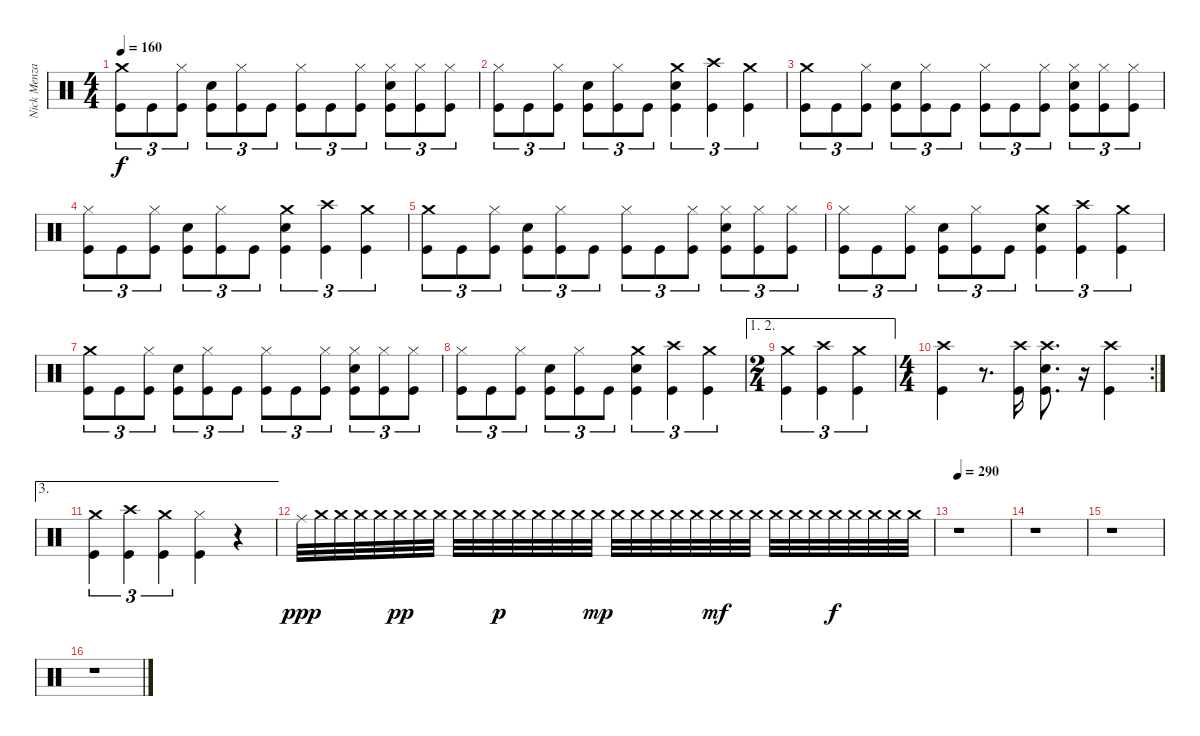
\track ("Nick Menza" "Nick Menza") {instrument percussion}
\staff {score}
\articulation defaults
\ts (4 4)
\tempo 160
\clef neutral
\ks c
("Crash medium (hit)" "Kick (hit)").8{tu (3 2) dy f} "Kick (hit)".8{tu (3 2)} ("Hi-Hat (closed)" "Kick (hit)").8{tu (3 2)} ("Snare (hit) 2" "Kick (hit)").8{tu (3 2)} ("Hi-Hat (closed)" "Kick (hit)").8{tu (3 2)} "Kick (hit)".8{tu (3 2)} ("Hi-Hat (closed)" "Kick (hit)").8{tu (3 2)} "Kick (hit)".8{tu (3 2)} ("Hi-Hat (closed)" "Kick (hit)").8{tu (3 2)} ("Hi-Hat (closed)" "Snare (hit) 2" "Kick (hit)").8{tu (3 2)} ("Hi-Hat (closed)" "Kick (hit)").8{tu (3 2)} ("Hi-Hat (closed)" "Kick (hit)").8{tu (3 2)} |
("Hi-Hat (closed)" "Kick (hit)").8{tu (3 2)} "Kick (hit)".8{tu (3 2)} ("Hi-Hat (closed)" "Kick (hit)").8{tu (3 2)} ("Snare (hit) 2" "Kick (hit)").8{tu (3 2)} ("Hi-Hat (closed)" "Kick (hit)").8{tu (3 2)} "Kick (hit)".8{tu (3 2)} ("Crash medium (hit)" "Snare (hit) 2" "Kick (hit)").4{tu (3 2)} ("Crash high (hit)" "Kick (hit)").4{tu (3 2)} ("Crash medium (hit)" "Kick (hit)").4{tu (3 2)} |
("Crash medium (hit)" "Kick (hit)").8{tu (3 2)} "Kick (hit)".8{tu (3 2)} ("Hi-Hat (closed)" "Kick (hit)").8{tu (3 2)} ("Snare (hit) 2" "Kick (hit)").8{tu (3 2)} ("Hi-Hat (closed)" "Kick (hit)").8{tu (3 2)} "Kick (hit)".8{tu (3 2)} ("Hi-Hat (closed)" "Kick (hit)").8{tu (3 2)} "Kick (hit)".8{tu (3 2)} ("Hi-Hat (closed)" "Kick (hit)").8{tu (3 2)} ("Hi-Hat (closed)" "Snare (hit) 2" "Kick (hit)").8{tu (3 2)} ("Hi-Hat (closed)" "Kick (hit)").8{tu (3 2)} ("Hi-Hat (closed)" "Kick (hit)").8{tu (3 2)} |
("Hi-Hat (closed)" "Kick (hit)").8{tu (3 2)} "Kick (hit)".8{tu (3 2)} ("Hi-Hat (closed)" "Kick (hit)").8{tu (3 2)} ("Snare (hit) 2" "Kick (hit)").8{tu (3 2)} ("Hi-Hat (closed)" "Kick (hit)").8{tu (3 2)} "Kick (hit)".8{tu (3 2)} ("Crash medium (hit)" "Snare (hit) 2" "Kick (hit)").4{tu (3 2)} ("Crash high (hit)" "Kick (hit)").4{tu (3 2)} ("Crash medium (hit)" "Kick (hit)").4{tu (3 2)} |
("Crash medium (hit)" "Kick (hit)").8{tu (3 2)} "Kick (hit)".8{tu (3 2)} ("Hi-Hat (closed)" "Kick (hit)").8{tu (3 2)} ("Snare (hit) 2" "Kick (hit)").8{tu (3 2)} ("Hi-Hat (closed)" "Kick (hit)").8{tu (3 2)} "Kick (hit)".8{tu (3 2)} ("Hi-Hat (closed)" "Kick (hit)").8{tu (3 2)} "Kick (hit)".8{tu (3 2)} ("Hi-Hat (closed)" "Kick (hit)").8{tu (3 2)} ("Hi-Hat (closed)" "Snare (hit) 2" "Kick (hit)").8{tu (3 2)} ("Hi-Hat (closed)" "Kick (hit)").8{tu (3 2)} ("Hi-Hat (closed)" "Kick (hit)").8{tu (3 2)} |
("Hi-Hat (closed)" "Kick (hit)").8{tu (3 2)} "Kick (hit)".8{tu (3 2)} ("Hi-Hat (closed)" "Kick (hit)").8{tu (3 2)} ("Snare (hit) 2" "Kick (hit)").8{tu (3 2)} ("Hi-Hat (closed)" "Kick (hit)").8{tu (3 2)} "Kick (hit)".8{tu (3 2)} ("Crash medium (hit)" "Snare (hit) 2" "Kick (hit)").4{tu (3 2)} ("Crash high (hit)" "Kick (hit)").4{tu (3 2)} ("Crash medium (hit)" "Kick (hit)").4{tu (3 2)} |
("Crash medium (hit)" "Kick (hit)").8{tu (3 2)} "Kick (hit)".8{tu (3 2)} ("Hi-Hat (closed)" "Kick (hit)").8{tu (3 2)} ("Snare (hit) 2" "Kick (hit)").8{tu (3 2)} ("Hi-Hat (closed)" "Kick (hit)").8{tu (3 2)} "Kick (hit)".8{tu (3 2)} ("Hi-Hat (closed)" "Kick (hit)").8{tu (3 2)} "Kick (hit)".8{tu (3 2)} ("Hi-Hat (closed)" "Kick (hit)").8{tu (3 2)} ("Hi-Hat (closed)" "Snare (hit) 2" "Kick (hit)").8{tu (3 2)} ("Hi-Hat (closed)" "Kick (hit)").8{tu (3 2)} ("Hi-Hat (closed)" "Kick (hit)").8{tu (3 2)} |
("Hi-Hat (closed)" "Kick (hit)").8{tu (3 2)} "Kick (hit)".8{tu (3 2)} ("Hi-Hat (closed)" "Kick (hit)").8{tu (3 2)} ("Snare (hit) 2" "Kick (hit)").8{tu (3 2)} ("Hi-Hat (closed)" "Kick (hit)").8{tu (3 2)} "Kick (hit)".8{tu (3 2)} ("Crash medium (hit)" "Snare (hit) 2" "Kick (hit)").4{tu (3 2)} ("Crash high (hit)" "Kick (hit)").4{tu (3 2)} ("Crash medium (hit)" "Kick (hit)").4{tu (3 2)} |
\ae (1 2)
\ts (2 4)
("Crash medium (hit)" "Kick (hit)").4{tu (3 2)} ("Crash high (hit)" "Kick (hit)").4{tu (3 2)} ("Crash medium (hit)" "Kick (hit)").4{tu (3 2)} |
\rc 2
\ts (4 4)
("Crash high (hit)" "Kick (hit)").4 r.8{d} ("Crash high (hit)" "Kick (hit)").16 ("Crash high (hit)" "Snare (hit) 2" "Kick (hit)").8{d} r.16 ("Crash high (hit)" "Kick (hit)").4 |
\ae 3
("Crash medium (hit)" "Kick (hit)").4{tu (3 2)} ("Crash high (hit)" "Kick (hit)").4{tu (3 2)} ("Crash medium (hit)" "Kick (hit)").4{tu (3 2)} ("Hi-Hat (closed)" "Kick (hit)").4 r.4 |
"Ride (middle)".32{dy ppp} "Crash medium (hit)".32 "Crash medium (hit)".32 "Crash medium (hit)".32 "Crash medium (hit)".32 "Crash medium (hit)".32{dy pp} "Crash medium (hit)".32 "Crash medium (hit)".32 "Crash medium (hit)".32 "Crash medium (hit)".32 "Crash medium (hit)".32{dy p} "Crash medium (hit)".32 "Crash medium (hit)".32 "Crash medium (hit)".32 "Crash medium (hit)".32 "Crash medium (hit)".32{dy mp} "Crash medium (hit)".32 "Crash medium (hit)".32 "Crash medium (hit)".32 "Crash medium (hit)".32 "Crash medium (hit)".32 "Crash medium (hit)".32{dy mf} "Crash medium (hit)".32 "Crash medium (hit)".32 "Crash medium (hit)".32 "Crash medium (hit)".32 "Crash medium (hit)".32 "Crash medium (hit)".32{dy f} "Crash medium (hit)".32 "Crash medium (hit)".32 "Crash medium (hit)".32 "Crash medium (hit)".32 |
\tempo 290
r.1 |
r.1 |
r.1 |
r.1
